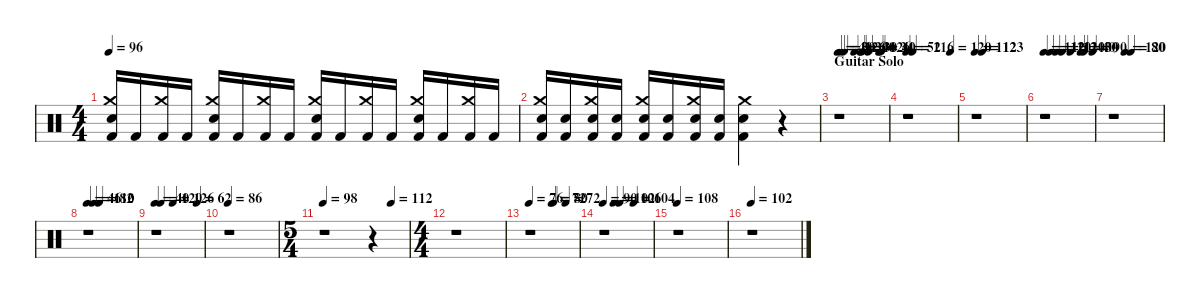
\hideDynamics
\bracketExtendMode nobrackets
\singleTrackTrackNamePolicy hidden
\multiTrackTrackNamePolicy hidden
\firstSystemTrackNameMode fullname
\firstSystemTrackNameOrientation horizontal
\otherSystemsTrackNameOrientation horizontal
\track ("Drumkit" "Drums") {instrument percussion}
\staff {score}
\articulation defaults
\ts (4 4)
\tempo 96
\clef neutral
\ks c
("Crash medium (hit)" "Snare (hit) 2" "Kick (hit) 2").16{dy ff beam Up} "Kick (hit) 2".16{dy f beam Up} ("Crash medium (hit)" "Kick (hit) 2").16{beam Up} "Kick (hit) 2".16{beam Up} ("Crash medium (hit)" "Snare (hit) 2" "Kick (hit) 2").16{dy ff beam Up} "Kick (hit) 2".16{dy f beam Up} ("Crash medium (hit)" "Kick (hit) 2").16{beam Up} "Kick (hit) 2".16{beam Up} ("Crash medium (hit)" "Snare (hit) 2" "Kick (hit) 2").16{dy ff beam Up} "Kick (hit) 2".16{dy f beam Up} ("Crash medium (hit)" "Kick (hit) 2").16{beam Up} "Kick (hit) 2".16{beam Up} ("Crash medium (hit)" "Snare (hit) 2" "Kick (hit) 2").16{dy ff beam Up} "Kick (hit) 2".16{dy f beam Up} ("Crash medium (hit)" "Kick (hit) 2").16{beam Up} "Kick (hit) 2".16{beam Up} |
("Crash medium (hit)" "Snare (hit) 2" "Kick (hit) 2").16{dy ff beam Up} ("Snare (hit) 2" "Kick (hit) 2").16{dy f beam Up} ("Crash medium (hit)" "Snare (hit) 2" "Kick (hit) 2").16{beam Up} ("Snare (hit) 2" "Kick (hit) 2").16{beam Up} ("Crash medium (hit)" "Snare (hit) 2" "Kick (hit) 2").16{dy ff beam Up} ("Snare (hit) 2" "Kick (hit) 2").16{dy f beam Up} ("Crash medium (hit)" "Snare (hit) 2" "Kick (hit) 2").16{beam Up} ("Snare (hit) 2" "Kick (hit) 2").16{beam Up} ("Crash medium (hit)" "Snare (hit) 2" "Kick (hit) 2").4{dy ff beam Down} r.4{beam Down} |
\section ("" "Guitar Solo")
\tempo 40
\tempo (30 0.0625)
\tempo (126 0.125)
\tempo (30 0.333333)
\tempo (40 0.46875)
\tempo (30 0.5)
\tempo (126 0.625)
\tempo (34 0.833333)
\tempo (40 0.875)
r.1{beam Down} |
\tempo 52
\tempo (116 0.125)
\tempo (120 0.875)
r.1{beam Down} |
\tempo 112
\tempo (123 0.14375)
r.1{beam Down} |
\tempo 112
\tempo (120 0.125)
\tempo (112 0.25)
\tempo (124 0.375)
\tempo (100 0.541667)
\tempo (40 0.75)
\tempo (30 0.8125)
\tempo (90 0.984375)
r.1{beam Down} |
\tempo (120 0.25)
\tempo (80 0.375)
r.1{beam Down} |
\tempo 46
\tempo (110 0.125)
\tempo (82 0.25)
r.1{beam Down} |
\tempo 40
\tempo (120 0.125)
\tempo (126 0.375)
\tempo (62 0.875)
r.1{beam Down} |
\tempo 86
r.1{beam Down} |
\ts (5 4)
\tempo 98
\tempo (112 0.8)
r.1{beam Down} r.4{beam Down} |
\ts (4 4)
r.1{beam Down} |
\tempo 76
\tempo (72 0.46875)
\tempo (80 0.5)
\tempo (72 0.75)
r.1{beam Down} |
\tempo 90
\tempo (102 0.21875)
\tempo (106 0.34375)
\tempo (104 0.625)
r.1{beam Down} |
\tempo 108
r.1{beam Down} |
\tempo 102
r.1{beam Down}
